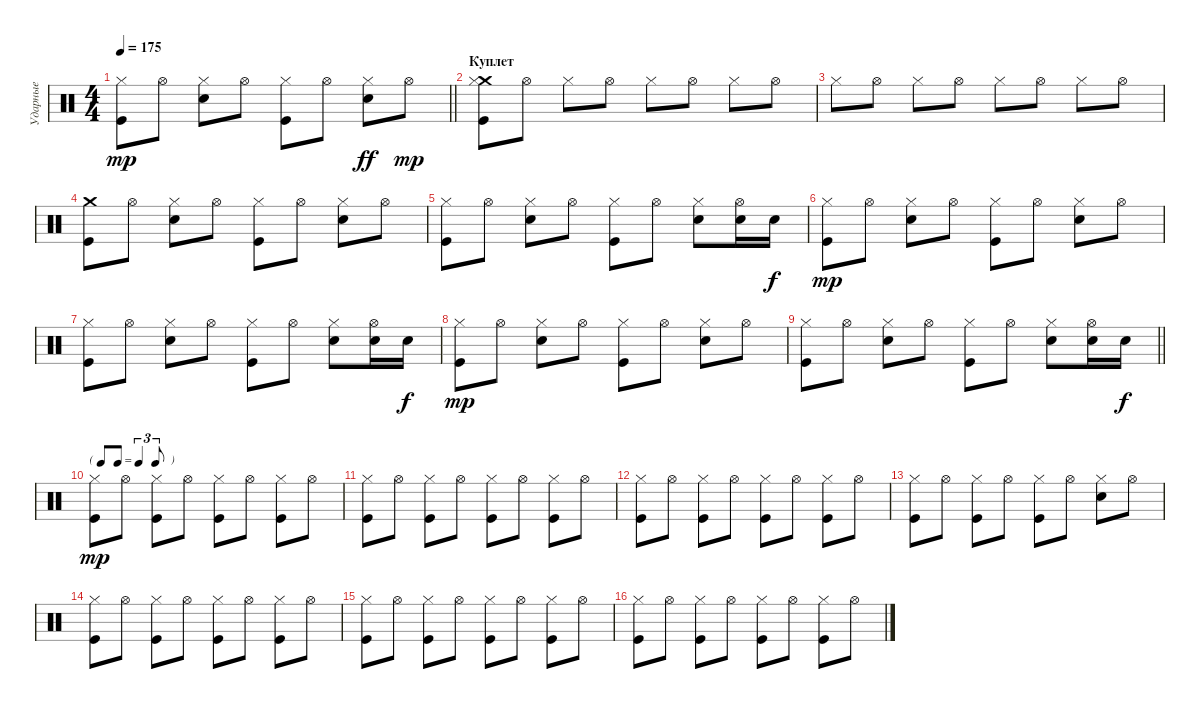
\track ("Ударные" "Ударные") {instrument percussion}
\staff {score}
\articulation defaults
\ts (4 4)
\tempo 175
\clef neutral
\barLineRight lightlight
\ks c
("Hi-Hat (closed)" "Kick (hit)").8{dy mp} "Hi-Hat (open)".8 ("Hi-Hat (closed)" "Electric Snare (hit)").8 "Hi-Hat (open)".8 ("Hi-Hat (closed)" "Kick (hit)").8 "Hi-Hat (open)".8 ("Hi-Hat (closed)" "Electric Snare (hit)").8{dy ff} "Hi-Hat (open)".8{dy mp} |
\section ("" "Куплет")
("Crash medium (hit)" "Hi-Hat (closed)" "Kick (hit)").8 "Hi-Hat (open)".8 "Hi-Hat (closed)".8 "Hi-Hat (open)".8 "Hi-Hat (closed)".8 "Hi-Hat (open)".8 "Hi-Hat (closed)".8 "Hi-Hat (open)".8 |
"Hi-Hat (closed)".8 "Hi-Hat (open)".8 "Hi-Hat (closed)".8 "Hi-Hat (open)".8 "Hi-Hat (closed)".8 "Hi-Hat (open)".8 "Hi-Hat (closed)".8 "Hi-Hat (open)".8 |
("Crash medium (hit)" "Kick (hit)").8 "Hi-Hat (open)".8 ("Hi-Hat (closed)" "Electric Snare (hit)").8 "Hi-Hat (open)".8 ("Hi-Hat (closed)" "Kick (hit)").8 "Hi-Hat (open)".8 ("Hi-Hat (closed)" "Electric Snare (hit)").8 "Hi-Hat (open)".8 |
("Hi-Hat (closed)" "Kick (hit)").8 "Hi-Hat (open)".8 ("Hi-Hat (closed)" "Electric Snare (hit)").8 "Hi-Hat (open)".8 ("Hi-Hat (closed)" "Kick (hit)").8 "Hi-Hat (open)".8 ("Hi-Hat (closed)" "Electric Snare (hit)").8 ("Hi-Hat (open)" "Electric Snare (hit)").16 "Electric Snare (hit)".16{dy f} |
("Hi-Hat (closed)" "Kick (hit)").8{dy mp} "Hi-Hat (open)".8 ("Hi-Hat (closed)" "Electric Snare (hit)").8 "Hi-Hat (open)".8 ("Hi-Hat (closed)" "Kick (hit)").8 "Hi-Hat (open)".8 ("Hi-Hat (closed)" "Electric Snare (hit)").8 "Hi-Hat (open)".8 |
("Hi-Hat (closed)" "Kick (hit)").8 "Hi-Hat (open)".8 ("Hi-Hat (closed)" "Electric Snare (hit)").8 "Hi-Hat (open)".8 ("Hi-Hat (closed)" "Kick (hit)").8 "Hi-Hat (open)".8 ("Hi-Hat (closed)" "Electric Snare (hit)").8 ("Hi-Hat (open)" "Electric Snare (hit)").16 "Electric Snare (hit)".16{dy f} |
("Hi-Hat (closed)" "Kick (hit)").8{dy mp} "Hi-Hat (open)".8 ("Hi-Hat (closed)" "Electric Snare (hit)").8 "Hi-Hat (open)".8 ("Hi-Hat (closed)" "Kick (hit)").8 "Hi-Hat (open)".8 ("Hi-Hat (closed)" "Electric Snare (hit)").8 "Hi-Hat (open)".8 |
\barLineRight lightlight
("Hi-Hat (closed)" "Kick (hit)").8 "Hi-Hat (open)".8 ("Hi-Hat (closed)" "Electric Snare (hit)").8 "Hi-Hat (open)".8 ("Hi-Hat (closed)" "Kick (hit)").8 "Hi-Hat (open)".8 ("Hi-Hat (closed)" "Electric Snare (hit)").8 ("Hi-Hat (open)" "Electric Snare (hit)").16 "Electric Snare (hit)".16{dy f} |
\tf triplet8th
\section ("" " ")
("Hi-Hat (closed)" "Kick (hit)").8{dy mp} "Hi-Hat (open)".8 ("Hi-Hat (closed)" "Kick (hit)").8 "Hi-Hat (open)".8 ("Hi-Hat (closed)" "Kick (hit)").8 "Hi-Hat (open)".8 ("Hi-Hat (closed)" "Kick (hit)").8 "Hi-Hat (open)".8 |
("Hi-Hat (closed)" "Kick (hit)").8 "Hi-Hat (open)".8 ("Hi-Hat (closed)" "Kick (hit)").8 "Hi-Hat (open)".8 ("Hi-Hat (closed)" "Kick (hit)").8 "Hi-Hat (open)".8 ("Hi-Hat (closed)" "Kick (hit)").8 "Hi-Hat (open)".8 |
("Hi-Hat (closed)" "Kick (hit)").8 "Hi-Hat (open)".8 ("Hi-Hat (closed)" "Kick (hit)").8 "Hi-Hat (open)".8 ("Hi-Hat (closed)" "Kick (hit)").8 "Hi-Hat (open)".8 ("Hi-Hat (closed)" "Kick (hit)").8 "Hi-Hat (open)".8 |
("Hi-Hat (closed)" "Kick (hit)").8 "Hi-Hat (open)".8 ("Hi-Hat (closed)" "Kick (hit)").8 "Hi-Hat (open)".8 ("Hi-Hat (closed)" "Kick (hit)").8 "Hi-Hat (open)".8 ("Hi-Hat (closed)" "Electric Snare (hit)").8 "Hi-Hat (open)".8 |
("Hi-Hat (closed)" "Kick (hit)").8 "Hi-Hat (open)".8 ("Hi-Hat (closed)" "Kick (hit)").8 "Hi-Hat (open)".8 ("Hi-Hat (closed)" "Kick (hit)").8 "Hi-Hat (open)".8 ("Hi-Hat (closed)" "Kick (hit)").8 "Hi-Hat (open)".8 |
("Hi-Hat (closed)" "Kick (hit)").8 "Hi-Hat (open)".8 ("Hi-Hat (closed)" "Kick (hit)").8 "Hi-Hat (open)".8 ("Hi-Hat (closed)" "Kick (hit)").8 "Hi-Hat (open)".8 ("Hi-Hat (closed)" "Kick (hit)").8 "Hi-Hat (open)".8 |
("Hi-Hat (closed)" "Kick (hit)").8 "Hi-Hat (open)".8 ("Hi-Hat (closed)" "Kick (hit)").8 "Hi-Hat (open)".8 ("Hi-Hat (closed)" "Kick (hit)").8 "Hi-Hat (open)".8 ("Hi-Hat (closed)" "Kick (hit)").8 "Hi-Hat (open)".8
